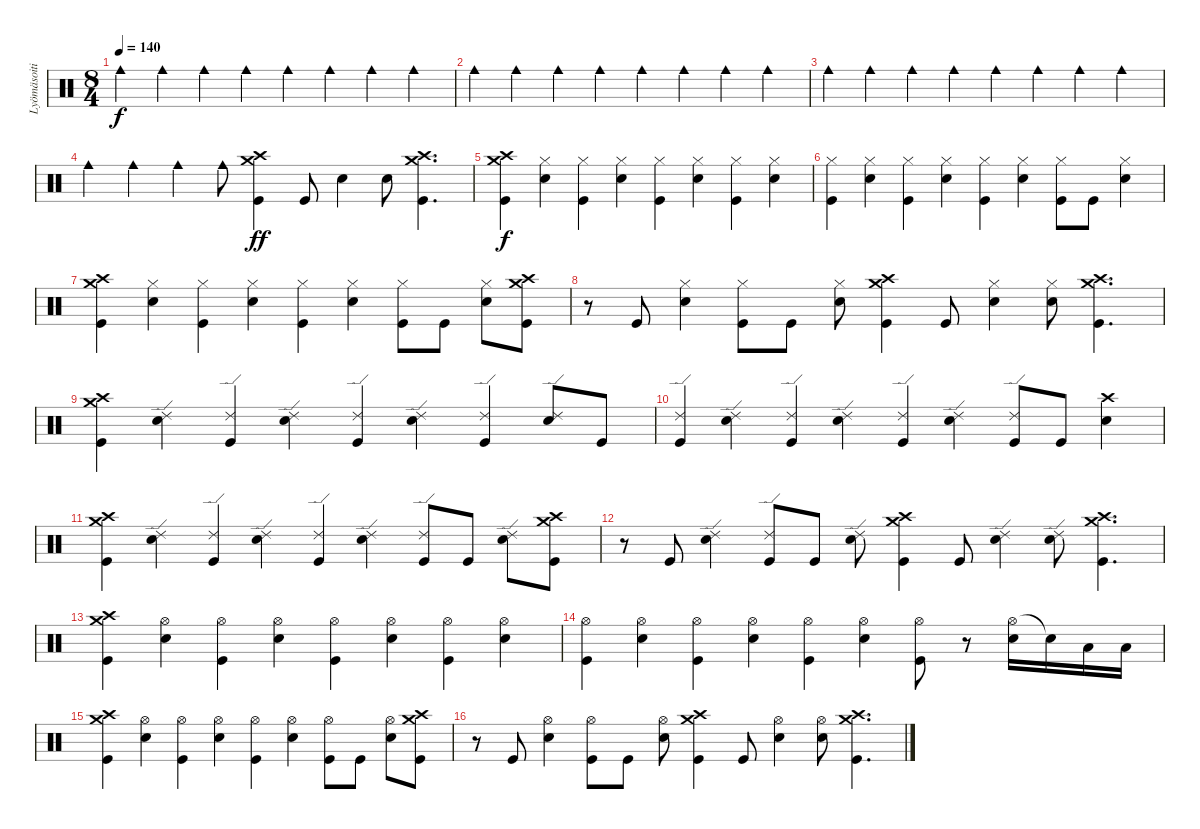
\track ("Lyömäsoitin" "Lyömäsoiti") {instrument percussion}
\staff {score}
\articulation defaults
\ts (8 4)
\tempo 140
\clef neutral
\ks c "Cowbell medium (hit)".4{dy f} "Cowbell medium (hit)".4 "Cowbell medium (hit)".4 "Cowbell medium (hit)".4 "Cowbell medium (hit)".4 "Cowbell medium (hit)".4 "Cowbell medium (hit)".4 "Cowbell medium (hit)".4
|
"Cowbell medium (hit)".4 "Cowbell medium (hit)".4 "Cowbell medium (hit)".4 "Cowbell medium (hit)".4 "Cowbell medium (hit)".4 "Cowbell medium (hit)".4 "Cowbell medium (hit)".4 "Cowbell medium (hit)".4 |
"Cowbell medium (hit)".4 "Cowbell medium (hit)".4 "Cowbell medium (hit)".4 "Cowbell medium (hit)".4 "Cowbell medium (hit)".4 "Cowbell medium (hit)".4 "Cowbell medium (hit)".4 "Cowbell medium (hit)".4 |
"Cowbell medium (hit)".4 "Cowbell medium (hit)".4 "Cowbell medium (hit)".4 "Cowbell medium (hit)".8 ("Crash medium (hit)" "Crash high (hit)" "Kick (hit)").4{dy ff} "Kick (hit)".8 "Snare (hit) 2".4 "Snare (hit) 2".8 ("Crash medium (hit)" "Crash high (hit)" "Kick (hit)").4{d} |
("Crash medium (hit)" "Crash high (hit)" "Kick (hit)").4{dy f} ("Hi-Hat (closed)" "Snare (hit) 2").4 ("Hi-Hat (closed)" "Kick (hit)").4 ("Hi-Hat (closed)" "Snare (hit) 2").4 ("Hi-Hat (closed)" "Kick (hit)").4 ("Hi-Hat (closed)" "Snare (hit) 2").4 ("Hi-Hat (closed)" "Kick (hit)").4 ("Hi-Hat (closed)" "Snare (hit) 2").4 |
("Hi-Hat (closed)" "Kick (hit)").4 ("Hi-Hat (closed)" "Snare (hit) 2").4 ("Hi-Hat (closed)" "Kick (hit)").4 ("Hi-Hat (closed)" "Snare (hit) 2").4 ("Hi-Hat (closed)" "Kick (hit)").4 ("Hi-Hat (closed)" "Snare (hit) 2").4 ("Hi-Hat (closed)" "Kick (hit)").8 "Kick (hit)".8 ("Hi-Hat (closed)" "Snare (hit) 2").4 |
("Crash medium (hit)" "Crash high (hit)" "Kick (hit)").4 ("Hi-Hat (closed)" "Snare (hit) 2").4 ("Hi-Hat (closed)" "Kick (hit)").4 ("Hi-Hat (closed)" "Snare (hit) 2").4 ("Hi-Hat (closed)" "Kick (hit)").4 ("Hi-Hat (closed)" "Snare (hit) 2").4 ("Hi-Hat (closed)" "Kick (hit)").8 "Kick (hit)".8 ("Hi-Hat (closed)" "Snare (hit) 2").8 ("Crash medium (hit)" "Crash high (hit)" "Kick (hit)").8 |
r.8 "Kick (hit)".8 ("Hi-Hat (closed)" "Snare (hit) 2").4 ("Hi-Hat (closed)" "Kick (hit)").8 "Kick (hit)".8 ("Hi-Hat (closed)" "Snare (hit) 2").8 ("Crash medium (hit)" "Crash high (hit)" "Kick (hit)").4 "Kick (hit)".8 ("Hi-Hat (closed)" "Snare (hit) 2").4 ("Hi-Hat (closed)" "Snare (hit) 2").8 ("Crash medium (hit)" "Crash high (hit)" "Kick (hit)").4{d} |
("Crash medium (hit)" "Crash high (hit)" "Kick (hit)").4 ("Ride (edge) 2" "Snare (hit) 2").4 ("Ride (edge) 2" "Kick (hit)").4 ("Ride (edge) 2" "Snare (hit) 2").4 ("Ride (edge) 2" "Kick (hit)").4 ("Ride (edge) 2" "Snare (hit) 2").4 ("Ride (edge) 2" "Kick (hit)").4 ("Ride (edge) 2" "Snare (hit) 2").8 "Kick (hit)".8 |
("Ride (edge) 2" "Kick (hit)").4 ("Ride (edge) 2" "Snare (hit) 2").4 ("Ride (edge) 2" "Kick (hit)").4 ("Ride (edge) 2" "Snare (hit) 2").4 ("Ride (edge) 2" "Kick (hit)").4 ("Ride (edge) 2" "Snare (hit) 2").4 ("Ride (edge) 2" "Kick (hit)").8 "Kick (hit)".8 ("Crash high (hit)" "Snare (hit) 2").4 |
("Crash medium (hit)" "Crash high (hit)" "Kick (hit)").4 ("Ride (edge) 2" "Snare (hit) 2").4 ("Ride (edge) 2" "Kick (hit)").4 ("Ride (edge) 2" "Snare (hit) 2").4 ("Ride (edge) 2" "Kick (hit)").4 ("Ride (edge) 2" "Snare (hit) 2").4 ("Ride (edge) 2" "Kick (hit)").8 "Kick (hit)".8 ("Ride (edge) 2" "Snare (hit) 2").8 ("Crash medium (hit)" "Crash high (hit)" "Kick (hit)").8 |
r.8 "Kick (hit)".8 ("Ride (edge) 2" "Snare (hit) 2").4 ("Ride (edge) 2" "Kick (hit)").8 "Kick (hit)".8 ("Ride (edge) 2" "Snare (hit) 2").8 ("Crash medium (hit)" "Crash high (hit)" "Kick (hit)").4 "Kick (hit)".8 ("Ride (edge) 2" "Snare (hit) 2").4 ("Ride (edge) 2" "Snare (hit) 2").8 ("Crash medium (hit)" "Crash high (hit)" "Kick (hit)").4{d} |
("Crash medium (hit)" "Crash high (hit)" "Kick (hit)").4 ("Hi-Hat (open)" "Snare (hit) 2").4 ("Hi-Hat (open)" "Kick (hit)").4 ("Hi-Hat (open)" "Snare (hit) 2").4 ("Hi-Hat (open)" "Kick (hit)").4 ("Hi-Hat (open)" "Snare (hit) 2").4 ("Hi-Hat (open)" "Kick (hit)").4 ("Hi-Hat (open)" "Snare (hit) 2").4 |
("Hi-Hat (open)" "Kick (hit)").4 ("Hi-Hat (open)" "Snare (hit) 2").4 ("Hi-Hat (open)" "Kick (hit)").4 ("Hi-Hat (open)" "Snare (hit) 2").4 ("Hi-Hat (open)" "Kick (hit)").4 ("Hi-Hat (open)" "Snare (hit) 2").4 ("Hi-Hat (open)" "Kick (hit)").8 r.8 ("Hi-Hat (open)" "Snare (hit) 2").16 "Snare (hit)"{t}.16 "Low Tom (hit)".16 "Low Tom (hit)".16 |
("Crash medium (hit)" "Crash high (hit)" "Kick (hit)").4 ("Hi-Hat (open)" "Snare (hit) 2").4 ("Hi-Hat (open)" "Kick (hit)").4 ("Hi-Hat (open)" "Snare (hit) 2").4 ("Hi-Hat (open)" "Kick (hit)").4 ("Hi-Hat (open)" "Snare (hit) 2").4 ("Hi-Hat (open)" "Kick (hit)").8 "Kick (hit)".8 ("Hi-Hat (open)" "Snare (hit) 2").8 ("Crash medium (hit)" "Crash high (hit)" "Kick (hit)").8 |
r.8 "Kick (hit)".8 ("Hi-Hat (open)" "Snare (hit) 2").4 ("Hi-Hat (open)" "Kick (hit)").8 "Kick (hit)".8 ("Hi-Hat (open)" "Snare (hit) 2").8 ("Crash medium (hit)" "Crash high (hit)" "Kick (hit)").4 "Kick (hit)".8 ("Hi-Hat (open)" "Snare (hit) 2").4 ("Hi-Hat (open)" "Snare (hit) 2").8 ("Crash medium (hit)" "Crash high (hit)" "Kick (hit)").4{d}
